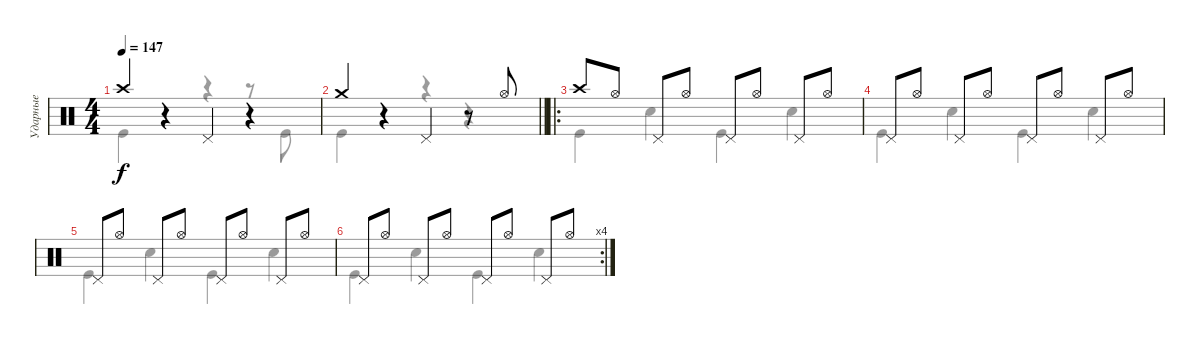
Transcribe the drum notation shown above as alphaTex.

\track ("Ударные" "Ударные") {instrument percussion}
\staff {score}
\articulation defaults
\voice
\ts (4 4)
\tempo 147
\clef neutral
\ks c "Crash high (hit)".4{dy f}
r.4 "Pedal Hi-Hat (hit)".4 r.4 |
\barLineRight lightlight "Crash medium (hit)".4
r.4 "Pedal Hi-Hat (hit)".4 r.8 "Hi-Hat (open)".8 |
\ro "Crash high (hit)".8 "Hi-Hat (open)".8 "Pedal Hi-Hat (hit)".8 "Hi-Hat (open)".8 "Pedal Hi-Hat (hit)".8 "Hi-Hat (open)".8 "Pedal Hi-Hat (hit)".8 "Hi-Hat (open)".8
|
"Pedal Hi-Hat (hit)".8 "Hi-Hat (open)".8 "Pedal Hi-Hat (hit)".8 "Hi-Hat (open)".8 "Pedal Hi-Hat (hit)".8 "Hi-Hat (open)".8 "Pedal Hi-Hat (hit)".8 "Hi-Hat (open)".8 |
"Pedal Hi-Hat (hit)".8 "Hi-Hat (open)".8 "Pedal Hi-Hat (hit)".8 "Hi-Hat (open)".8 "Pedal Hi-Hat (hit)".8 "Hi-Hat (open)".8 "Pedal Hi-Hat (hit)".8 "Hi-Hat (open)".8 |
\rc 4 "Pedal Hi-Hat (hit)".8 "Hi-Hat (open)".8 "Pedal Hi-Hat (hit)".8 "Hi-Hat (open)".8 "Pedal Hi-Hat (hit)".8 "Hi-Hat (open)".8 "Pedal Hi-Hat (hit)".8 "Hi-Hat (open)".8
|
\voice
\clef neutral
\ottava regular
\simile none
\ks c "Kick (hit)".4{dy f}
r.4 r.4 r.8 "Kick (hit)".8 |
\barLineRight lightlight "Kick (hit)".4
r.4 r.4 r.4 |
"Kick (hit)".4 "Snare (hit) 2".4 "Kick (hit)".4 "Snare (hit) 2".4 |
"Kick (hit)".4 "Snare (hit) 2".4 "Kick (hit)".4 "Snare (hit) 2".4 |
"Kick (hit)".4 "Snare (hit) 2".4 "Kick (hit)".4 "Snare (hit) 2".4 |
"Kick (hit)".4 "Snare (hit) 2".4 "Kick (hit)".4 "Snare (hit) 2".4 |
